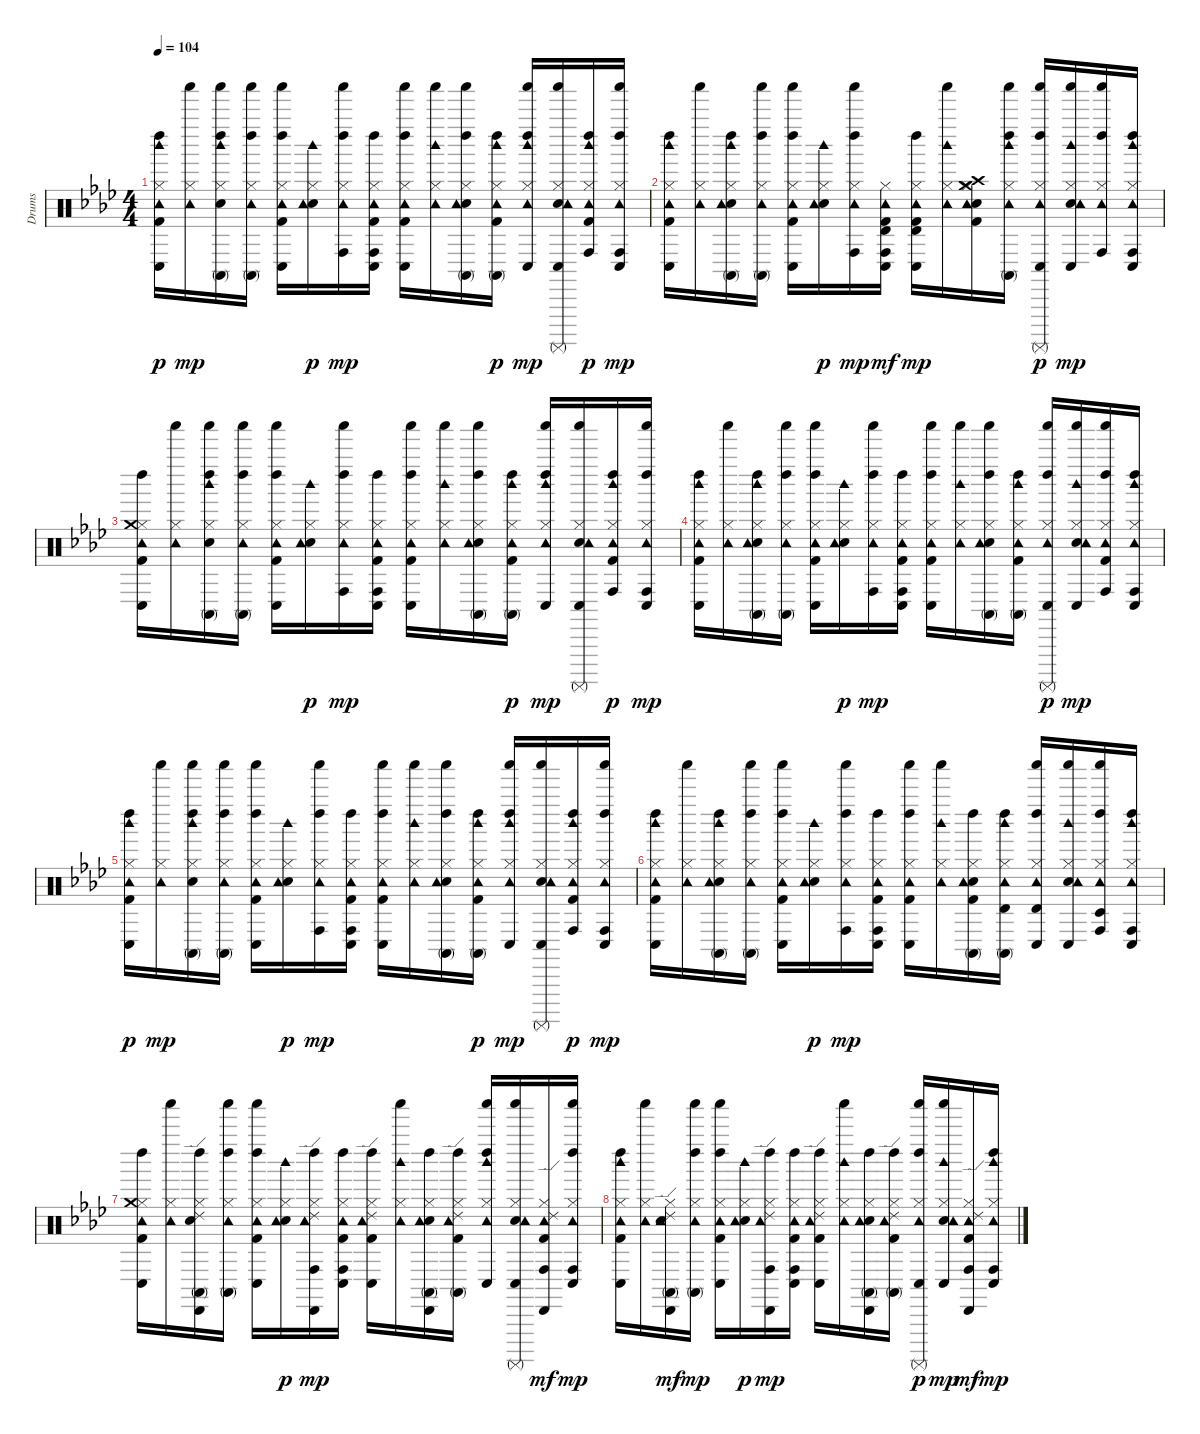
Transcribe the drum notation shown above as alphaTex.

\track ("Drums" "Drums") {instrument percussion}
\staff {score}
\articulation defaults
\ts (4 4)
\tempo 104
\clef neutral
\ks ab
("Kick (hit) 2" "Hi-Hat (closed)" "Tambourine (hit)" "Conga low (hit)" "Left Maraca (hit)" "Woodblock high (hit)").16{dy p} ("Hi-Hat (closed)" "Tambourine (hit)" "Shaker (hit)").16{dy mp} ("Hand Clap (hit)" "Hi-Hat (closed)" "Conga high (mute)" "Left Maraca (hit)" "Woodblock high (hit)" "Shaker (hit)").16 ("Hi-Hat (closed)" "Tambourine (hit)" "Conga high (mute)" "Left Maraca (hit)" "Shaker (hit)").16 ("Kick (hit) 2" "Hi-Hat (closed)" "Tambourine (hit)" "Conga low (hit)" "Left Maraca (hit)" "Shaker (hit)").16 ("Hand Clap (hit)" "Hi-Hat (closed)" "Tambourine (hit)" "Woodblock high (hit)").16{dy p} ("Hi-Hat (closed)" "Tambourine (hit)" "Conga high (hit)" "Left Maraca (hit)" "Shaker (hit)").16{dy mp} ("Kick (hit) 2" "Hi-Hat (closed)" "Tambourine (hit)" "Conga high (hit)" "Conga low (hit)" "Left Maraca (hit)").16 ("Kick (hit) 2" "Hi-Hat (closed)" "Tambourine (hit)" "Conga low (hit)" "Left Maraca (hit)" "Shaker (hit)").16 ("Hi-Hat (closed)" "Tambourine (hit)" "Woodblock high (hit)" "Shaker (hit)").16 ("Hand Clap (hit)" "Hi-Hat (closed)" "Tambourine (hit)" "Conga high (mute)" "Left Maraca (hit)" "Shaker (hit)").16 ("Kick (hit) 2" "Hi-Hat (closed)" "Tambourine (hit)" "Conga high (mute)" "Left Maraca (hit)" "Woodblock high (hit)").16{dy p} ("Hi-Hat (closed)" "Tambourine (hit)" "Conga low (hit)" "Left Maraca (hit)" "Woodblock high (hit)" "Shaker (hit)").16{dy mp} ("Hand Clap (hit)" "Hi-Hat (closed)" "Tambourine (hit)" "Conga low (hit)" "Shaker (hit)" "Surdo (mute)").16 ("Kick (hit) 2" "Hi-Hat (closed)" "Tambourine (hit)" "Conga high (hit)" "Left Maraca (hit)" "Woodblock high (hit)").16{dy p} ("Hi-Hat (closed)" "Tambourine (hit)" "Conga high (hit)" "Conga low (hit)" "Left Maraca (hit)" "Shaker (hit)").16{dy mp} |
("Kick (hit) 2" "Hi-Hat (closed)" "Tambourine (hit)" "Conga low (hit)" "Left Maraca (hit)" "Woodblock high (hit)").16 ("Hi-Hat (closed)" "Tambourine (hit)" "Shaker (hit)").16 ("Hand Clap (hit)" "Hi-Hat (closed)" "Tambourine (hit)" "Conga high (mute)" "Left Maraca (hit)" "Woodblock high (hit)").16 ("Hi-Hat (closed)" "Tambourine (hit)" "Conga high (mute)" "Left Maraca (hit)" "Shaker (hit)").16 ("Kick (hit) 2" "Hi-Hat (closed)" "Tambourine (hit)" "Conga low (hit)" "Left Maraca (hit)" "Shaker (hit)").16 ("Hand Clap (hit)" "Hi-Hat (closed)" "Tambourine (hit)" "Woodblock high (hit)").16{dy p} ("Hi-Hat (closed)" "Tambourine (hit)" "Conga high (hit)" "Left Maraca (hit)" "Shaker (hit)").16{dy mp} ("Kick (hit) 2" "Hi-Hat (closed)" "Tambourine (hit)" "Conga high (hit)" "Conga low (hit)" "Timbale high (hit)").16{dy mf} ("Kick (hit) 2" "Hi-Hat (closed)" "Tambourine (hit)" "Conga low (hit)" "Timbale high (hit)" "Left Maraca (hit)").16{dy mp} ("Hi-Hat (closed)" "Tambourine (hit)" "Woodblock high (hit)" "Shaker (hit)").16 ("Kick (hit) 2" "Hand Clap (hit)" "Hi-Hat (closed)" "Crash high (hit)" "Tambourine (hit)" "Crash medium (hit)").16 ("Hi-Hat (closed)" "Tambourine (hit)" "Conga high (mute)" "Left Maraca (hit)" "Woodblock high (hit)" "Shaker (hit)").16 ("Hi-Hat (closed)" "Tambourine (hit)" "Conga low (hit)" "Left Maraca (hit)" "Shaker (hit)" "Surdo (mute)").16{dy p} ("Hand Clap (hit)" "Hi-Hat (closed)" "Tambourine (hit)" "Conga low (hit)" "Woodblock high (hit)" "Shaker (hit)").16{dy mp} ("Hi-Hat (closed)" "Tambourine (hit)" "Conga high (hit)" "Left Maraca (hit)" "Shaker (hit)").16 ("Hi-Hat (closed)" "Tambourine (hit)" "Conga high (hit)" "Conga low (hit)" "Left Maraca (hit)" "Woodblock high (hit)").16 |
("Kick (hit) 2" "Hi-Hat (closed)" "Tambourine (hit)" "Crash medium (hit)" "Conga low (hit)" "Left Maraca (hit)").16 ("Hi-Hat (closed)" "Tambourine (hit)" "Shaker (hit)").16 ("Hand Clap (hit)" "Hi-Hat (closed)" "Conga high (mute)" "Left Maraca (hit)" "Woodblock high (hit)" "Shaker (hit)").16 ("Hi-Hat (closed)" "Tambourine (hit)" "Conga high (mute)" "Left Maraca (hit)" "Shaker (hit)").16 ("Kick (hit) 2" "Hi-Hat (closed)" "Tambourine (hit)" "Conga low (hit)" "Left Maraca (hit)" "Shaker (hit)").16 ("Hand Clap (hit)" "Hi-Hat (closed)" "Tambourine (hit)" "Woodblock high (hit)").16{dy p} ("Hi-Hat (closed)" "Tambourine (hit)" "Conga high (hit)" "Left Maraca (hit)" "Shaker (hit)").16{dy mp} ("Kick (hit) 2" "Hi-Hat (closed)" "Tambourine (hit)" "Conga high (hit)" "Conga low (hit)" "Left Maraca (hit)").16 ("Kick (hit) 2" "Hi-Hat (closed)" "Tambourine (hit)" "Conga low (hit)" "Left Maraca (hit)" "Shaker (hit)").16 ("Hi-Hat (closed)" "Tambourine (hit)" "Woodblock high (hit)" "Shaker (hit)").16 ("Hand Clap (hit)" "Hi-Hat (closed)" "Tambourine (hit)" "Conga high (mute)" "Left Maraca (hit)" "Shaker (hit)").16 ("Kick (hit) 2" "Hi-Hat (closed)" "Tambourine (hit)" "Conga high (mute)" "Left Maraca (hit)" "Woodblock high (hit)").16{dy p} ("Hi-Hat (closed)" "Tambourine (hit)" "Conga low (hit)" "Left Maraca (hit)" "Woodblock high (hit)" "Shaker (hit)").16{dy mp} ("Hand Clap (hit)" "Hi-Hat (closed)" "Tambourine (hit)" "Conga low (hit)" "Shaker (hit)" "Surdo (mute)").16 ("Kick (hit) 2" "Hi-Hat (closed)" "Tambourine (hit)" "Conga high (hit)" "Left Maraca (hit)" "Woodblock high (hit)").16{dy p} ("Hi-Hat (closed)" "Tambourine (hit)" "Conga high (hit)" "Conga low (hit)" "Left Maraca (hit)" "Shaker (hit)").16{dy mp} |
("Kick (hit) 2" "Hi-Hat (closed)" "Tambourine (hit)" "Conga low (hit)" "Left Maraca (hit)" "Woodblock high (hit)").16 ("Hi-Hat (closed)" "Tambourine (hit)" "Shaker (hit)").16 ("Hand Clap (hit)" "Hi-Hat (closed)" "Tambourine (hit)" "Conga high (mute)" "Left Maraca (hit)" "Woodblock high (hit)").16 ("Hi-Hat (closed)" "Tambourine (hit)" "Conga high (mute)" "Left Maraca (hit)" "Shaker (hit)").16 ("Kick (hit) 2" "Hi-Hat (closed)" "Tambourine (hit)" "Conga low (hit)" "Left Maraca (hit)" "Shaker (hit)").16 ("Hand Clap (hit)" "Hi-Hat (closed)" "Tambourine (hit)" "Woodblock high (hit)").16{dy p} ("Hi-Hat (closed)" "Tambourine (hit)" "Conga high (hit)" "Left Maraca (hit)" "Shaker (hit)").16{dy mp} ("Kick (hit) 2" "Hi-Hat (closed)" "Tambourine (hit)" "Conga high (hit)" "Conga low (hit)" "Left Maraca (hit)").16 ("Kick (hit) 2" "Hi-Hat (closed)" "Tambourine (hit)" "Conga low (hit)" "Left Maraca (hit)" "Shaker (hit)").16 ("Hi-Hat (closed)" "Tambourine (hit)" "Woodblock high (hit)" "Shaker (hit)").16 ("Hand Clap (hit)" "Hi-Hat (closed)" "Tambourine (hit)" "Conga high (mute)" "Left Maraca (hit)" "Shaker (hit)").16 ("Kick (hit) 2" "Hi-Hat (closed)" "Tambourine (hit)" "Conga high (mute)" "Left Maraca (hit)" "Woodblock high (hit)").16 ("Hi-Hat (closed)" "Tambourine (hit)" "Conga low (hit)" "Left Maraca (hit)" "Shaker (hit)" "Surdo (mute)").16{dy p} ("Hand Clap (hit)" "Hi-Hat (closed)" "Tambourine (hit)" "Conga low (hit)" "Woodblock high (hit)" "Shaker (hit)").16{dy mp} ("Kick (hit) 2" "Hi-Hat (closed)" "Tambourine (hit)" "Conga high (hit)" "Left Maraca (hit)" "Shaker (hit)").16 ("Hi-Hat (closed)" "Tambourine (hit)" "Conga high (hit)" "Conga low (hit)" "Left Maraca (hit)" "Woodblock high (hit)").16 |
("Kick (hit) 2" "Hi-Hat (closed)" "Tambourine (hit)" "Conga low (hit)" "Left Maraca (hit)" "Woodblock high (hit)").16{dy p} ("Hi-Hat (closed)" "Tambourine (hit)" "Shaker (hit)").16{dy mp} ("Hand Clap (hit)" "Hi-Hat (closed)" "Conga high (mute)" "Left Maraca (hit)" "Woodblock high (hit)" "Shaker (hit)").16 ("Hi-Hat (closed)" "Tambourine (hit)" "Conga high (mute)" "Left Maraca (hit)" "Shaker (hit)").16 ("Kick (hit) 2" "Hi-Hat (closed)" "Tambourine (hit)" "Conga low (hit)" "Left Maraca (hit)" "Shaker (hit)").16 ("Hand Clap (hit)" "Hi-Hat (closed)" "Tambourine (hit)" "Woodblock high (hit)").16{dy p} ("Hi-Hat (closed)" "Tambourine (hit)" "Conga high (hit)" "Left Maraca (hit)" "Shaker (hit)").16{dy mp} ("Kick (hit) 2" "Hi-Hat (closed)" "Tambourine (hit)" "Conga high (hit)" "Conga low (hit)" "Left Maraca (hit)").16 ("Kick (hit) 2" "Hi-Hat (closed)" "Tambourine (hit)" "Conga low (hit)" "Left Maraca (hit)" "Shaker (hit)").16 ("Hi-Hat (closed)" "Tambourine (hit)" "Woodblock high (hit)" "Shaker (hit)").16 ("Hand Clap (hit)" "Hi-Hat (closed)" "Tambourine (hit)" "Conga high (mute)" "Left Maraca (hit)" "Shaker (hit)").16 ("Kick (hit) 2" "Hi-Hat (closed)" "Tambourine (hit)" "Conga high (mute)" "Left Maraca (hit)" "Woodblock high (hit)").16{dy p} ("Hi-Hat (closed)" "Tambourine (hit)" "Conga low (hit)" "Left Maraca (hit)" "Woodblock high (hit)" "Shaker (hit)").16{dy mp} ("Hand Clap (hit)" "Hi-Hat (closed)" "Tambourine (hit)" "Conga low (hit)" "Shaker (hit)" "Surdo (mute)").16 ("Kick (hit) 2" "Hi-Hat (closed)" "Tambourine (hit)" "Conga high (hit)" "Left Maraca (hit)" "Woodblock high (hit)").16{dy p} ("Hi-Hat (closed)" "Tambourine (hit)" "Conga high (hit)" "Conga low (hit)" "Left Maraca (hit)" "Shaker (hit)").16{dy mp} |
("Kick (hit) 2" "Hi-Hat (closed)" "Tambourine (hit)" "Conga low (hit)" "Left Maraca (hit)" "Woodblock high (hit)").16 ("Hi-Hat (closed)" "Tambourine (hit)" "Shaker (hit)").16 ("Hand Clap (hit)" "Hi-Hat (closed)" "Tambourine (hit)" "Conga high (mute)" "Left Maraca (hit)" "Woodblock high (hit)").16 ("Hi-Hat (closed)" "Tambourine (hit)" "Conga high (mute)" "Left Maraca (hit)" "Shaker (hit)").16 ("Kick (hit) 2" "Hi-Hat (closed)" "Tambourine (hit)" "Conga low (hit)" "Left Maraca (hit)" "Shaker (hit)").16 ("Hand Clap (hit)" "Hi-Hat (closed)" "Tambourine (hit)" "Woodblock high (hit)").16{dy p} ("Hi-Hat (closed)" "Tambourine (hit)" "Conga high (hit)" "Left Maraca (hit)" "Shaker (hit)").16{dy mp} ("Kick (hit) 2" "Hi-Hat (closed)" "Tambourine (hit)" "Conga high (hit)" "Conga low (hit)" "Left Maraca (hit)").16 ("Kick (hit) 2" "Hi-Hat (closed)" "Tambourine (hit)" "Conga low (hit)" "Left Maraca (hit)" "Shaker (hit)").16 ("Hi-Hat (closed)" "Tambourine (hit)" "Woodblock high (hit)" "Shaker (hit)").16 ("Kick (hit) 2" "Hand Clap (hit)" "Hi-Hat (closed)" "Tambourine (hit)" "Conga high (mute)" "Left Maraca (hit)").16 ("Hi-Hat (closed)" "Tambourine (hit)" "Conga high (mute)" "Timbale high (hit)" "Left Maraca (hit)" "Woodblock high (hit)").16 ("Hi-Hat (closed)" "Tambourine (hit)" "Conga low (hit)" "Timbale high (hit)" "Left Maraca (hit)" "Shaker (hit)").16 ("Hand Clap (hit)" "Hi-Hat (closed)" "Tambourine (hit)" "Conga low (hit)" "Woodblock high (hit)" "Shaker (hit)").16 ("Hi-Hat (closed)" "Tambourine (hit)" "Conga high (hit)" "Timbale low (hit)" "Left Maraca (hit)" "Shaker (hit)").16 ("Hi-Hat (closed)" "Tambourine (hit)" "Conga high (hit)" "Conga low (hit)" "Left Maraca (hit)" "Woodblock high (hit)").16 |
("Kick (hit) 2" "Hi-Hat (closed)" "Tambourine (hit)" "Crash medium (hit)" "Conga low (hit)" "Left Maraca (hit)").16 ("Hi-Hat (closed)" "Tambourine (hit)" "Shaker (hit)").16 ("Hand Clap (hit)" "Hi-Hat (closed)" "Ride (edge) 2" "Conga high (mute)" "Cabasa (hit)" "Left Maraca (hit)").16 ("Hi-Hat (closed)" "Tambourine (hit)" "Conga high (mute)" "Left Maraca (hit)" "Shaker (hit)").16 ("Kick (hit) 2" "Hi-Hat (closed)" "Tambourine (hit)" "Conga low (hit)" "Left Maraca (hit)" "Shaker (hit)").16 ("Hand Clap (hit)" "Hi-Hat (closed)" "Tambourine (hit)" "Woodblock high (hit)").16{dy p} ("Hi-Hat (closed)" "Tambourine (hit)" "Ride (edge) 2" "Conga high (hit)" "Cabasa (hit)" "Left Maraca (hit)").16{dy mp} ("Kick (hit) 2" "Hi-Hat (closed)" "Tambourine (hit)" "Conga high (hit)" "Conga low (hit)" "Left Maraca (hit)").16 ("Kick (hit) 2" "Hi-Hat (closed)" "Tambourine (hit)" "Ride (edge) 2" "Conga low (hit)" "Left Maraca (hit)").16 ("Hi-Hat (closed)" "Tambourine (hit)" "Woodblock high (hit)" "Shaker (hit)").16 ("Hand Clap (hit)" "Hi-Hat (closed)" "Tambourine (hit)" "Conga high (mute)" "Cabasa (hit)" "Left Maraca (hit)").16 ("Kick (hit) 2" "Hi-Hat (closed)" "Tambourine (hit)" "Ride (edge) 2" "Conga high (mute)" "Left Maraca (hit)").16 ("Hi-Hat (closed)" "Tambourine (hit)" "Conga low (hit)" "Left Maraca (hit)" "Woodblock high (hit)" "Shaker (hit)").16 ("Hand Clap (hit)" "Hi-Hat (closed)" "Tambourine (hit)" "Conga low (hit)" "Shaker (hit)" "Surdo (mute)").16 ("Kick (hit) 2" "Hi-Hat (closed)" "Tambourine (hit)" "Ride (edge) 2" "Conga high (hit)" "Cabasa (hit)").16{dy mf} ("Hi-Hat (closed)" "Tambourine (hit)" "Conga high (hit)" "Conga low (hit)" "Left Maraca (hit)" "Shaker (hit)").16{dy mp} |
("Kick (hit) 2" "Hi-Hat (closed)" "Tambourine (hit)" "Conga low (hit)" "Left Maraca (hit)" "Woodblock high (hit)").16 ("Hi-Hat (closed)" "Tambourine (hit)" "Shaker (hit)").16 ("Hand Clap (hit)" "Hi-Hat (closed)" "Tambourine (hit)" "Ride (edge) 2" "Conga high (mute)" "Cabasa (hit)").16{dy mf} ("Hi-Hat (closed)" "Tambourine (hit)" "Conga high (mute)" "Left Maraca (hit)" "Shaker (hit)").16{dy mp} ("Kick (hit) 2" "Hi-Hat (closed)" "Tambourine (hit)" "Conga low (hit)" "Left Maraca (hit)" "Shaker (hit)").16 ("Hand Clap (hit)" "Hi-Hat (closed)" "Tambourine (hit)" "Woodblock high (hit)").16{dy p} ("Hi-Hat (closed)" "Tambourine (hit)" "Ride (edge) 2" "Conga high (hit)" "Cabasa (hit)" "Left Maraca (hit)").16{dy mp} ("Kick (hit) 2" "Hi-Hat (closed)" "Tambourine (hit)" "Conga high (hit)" "Conga low (hit)" "Left Maraca (hit)").16 ("Kick (hit) 2" "Hi-Hat (closed)" "Tambourine (hit)" "Ride (edge) 2" "Conga low (hit)" "Left Maraca (hit)").16 ("Hi-Hat (closed)" "Tambourine (hit)" "Woodblock high (hit)" "Shaker (hit)").16 ("Hand Clap (hit)" "Hi-Hat (closed)" "Tambourine (hit)" "Conga high (mute)" "Cabasa (hit)" "Left Maraca (hit)").16 ("Kick (hit) 2" "Hi-Hat (closed)" "Tambourine (hit)" "Ride (edge) 2" "Conga high (mute)" "Left Maraca (hit)").16 ("Hi-Hat (closed)" "Tambourine (hit)" "Conga low (hit)" "Left Maraca (hit)" "Shaker (hit)" "Surdo (mute)").16{dy p} ("Hand Clap (hit)" "Hi-Hat (closed)" "Tambourine (hit)" "Conga low (hit)" "Woodblock high (hit)" "Shaker (hit)").16{dy mp} ("Kick (hit) 2" "Hi-Hat (closed)" "Tambourine (hit)" "Ride (edge) 2" "Conga high (hit)" "Cabasa (hit)").16{dy mf} ("Hi-Hat (closed)" "Tambourine (hit)" "Conga high (hit)" "Conga low (hit)" "Left Maraca (hit)" "Woodblock high (hit)").16{dy mp}
